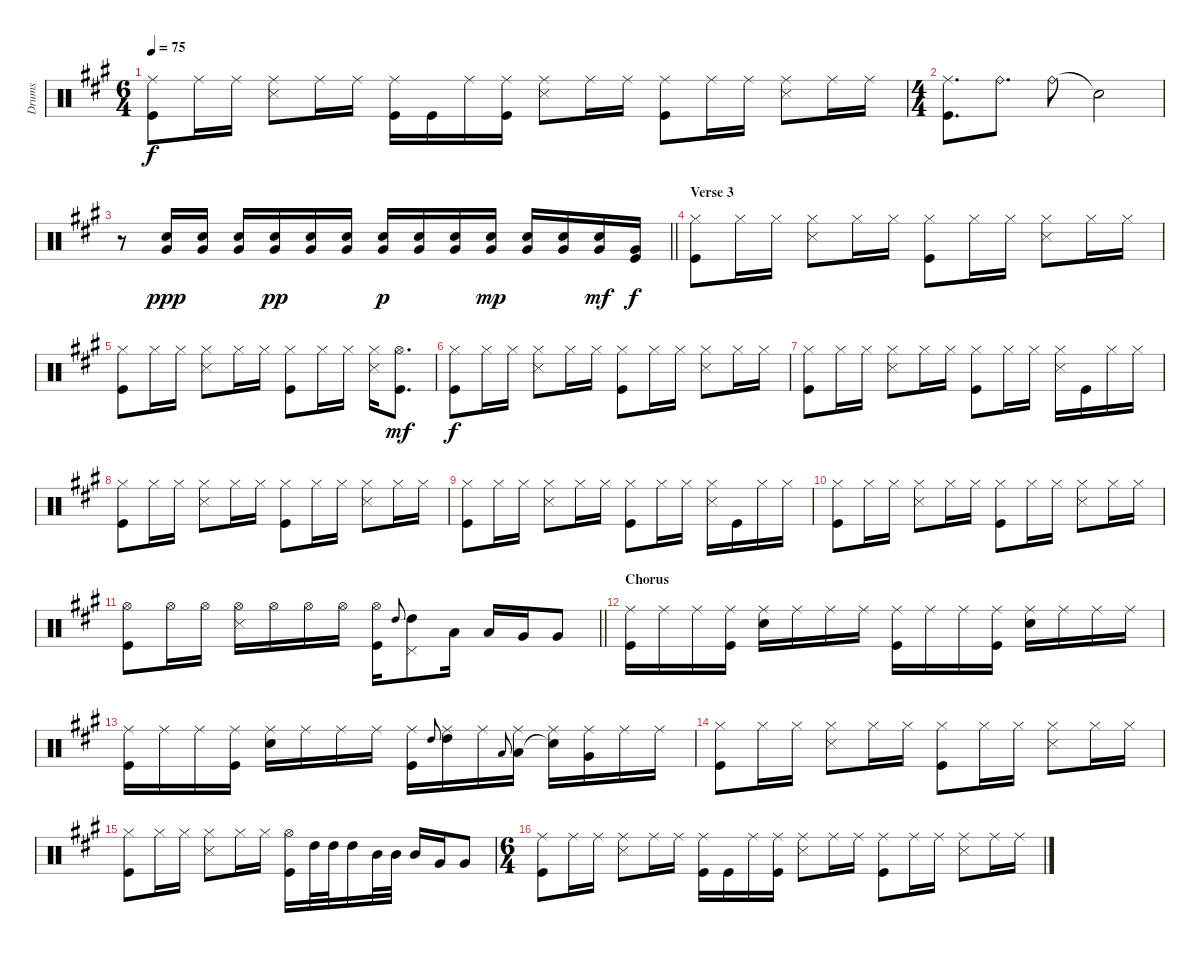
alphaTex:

\track ("Drums" "Drums") {instrument percussion}
\staff {score}
\articulation defaults
\ts (6 4)
\tempo 75
\clef neutral
\ks f#minor
("Ride (middle)" "Kick (hit)").8{dy f} "Ride (middle)".16 "Ride (middle)".16 ("Ride (middle)" "Snare (side stick) 3").8 "Ride (middle)".16 "Ride (middle)".16 ("Ride (middle)" "Kick (hit)").16 "Kick (hit)".16 "Ride (middle)".16 ("Ride (middle)" "Kick (hit)").16 ("Ride (middle)" "Snare (side stick) 3").8 "Ride (middle)".16 "Ride (middle)".16 ("Ride (middle)" "Kick (hit)").8 "Ride (middle)".16 "Ride (middle)".16 ("Ride (middle)" "Snare (side stick) 3").8 "Ride (middle)".16 "Ride (middle)".16 |
\ts (4 4)
("Ride (middle)" "Kick (hit)").8{d} "Ride (bell)".8{d} "Ride (bell)".8 "Snare (hit)"{t}.2 |
\barLineRight lightlight
r.8 ("Electric Snare (hit)" "Very Low Tom (hit)").16{dy ppp} ("Electric Snare (hit)" "Very Low Tom (hit)").16 ("Electric Snare (hit)" "Very Low Tom (hit)").16 ("Electric Snare (hit)" "Very Low Tom (hit)").16{dy pp} ("Electric Snare (hit)" "Very Low Tom (hit)").16 ("Electric Snare (hit)" "Very Low Tom (hit)").16 ("Electric Snare (hit)" "Very Low Tom (hit)").16{dy p} ("Electric Snare (hit)" "Very Low Tom (hit)").16 ("Electric Snare (hit)" "Very Low Tom (hit)").16 ("Electric Snare (hit)" "Very Low Tom (hit)").16{dy mp} ("Electric Snare (hit)" "Very Low Tom (hit)").16 ("Electric Snare (hit)" "Very Low Tom (hit)").16 ("Electric Snare (hit)" "Very Low Tom (hit)").16{dy mf} ("Very Low Tom (hit)" "Kick (hit)").16{dy f} |
\section ("" "Verse 3")
("Hi-Hat (closed)" "Kick (hit)").8 "Hi-Hat (closed)".16 "Hi-Hat (closed)".16 ("Hi-Hat (closed)" "Snare (side stick) 3").8 "Hi-Hat (closed)".16 "Hi-Hat (closed)".16 ("Hi-Hat (closed)" "Kick (hit)").8 "Hi-Hat (closed)".16 "Hi-Hat (closed)".16 ("Hi-Hat (closed)" "Snare (side stick) 3").8 "Hi-Hat (closed)".16 "Hi-Hat (closed)".16 |
("Hi-Hat (closed)" "Kick (hit)").8 "Hi-Hat (closed)".16 "Hi-Hat (closed)".16 ("Hi-Hat (closed)" "Snare (side stick) 3").8 "Hi-Hat (closed)".16 "Hi-Hat (closed)".16 ("Hi-Hat (closed)" "Kick (hit)").8 "Hi-Hat (closed)".16 "Hi-Hat (closed)".16 ("Hi-Hat (closed)" "Snare (side stick) 3").16 ("Hi-Hat (open)" "Kick (hit)").8{d dy mf} |
("Hi-Hat (closed)" "Kick (hit)").8{dy f} "Hi-Hat (closed)".16 "Hi-Hat (closed)".16 ("Hi-Hat (closed)" "Snare (side stick) 3").8 "Hi-Hat (closed)".16 "Hi-Hat (closed)".16 ("Hi-Hat (closed)" "Kick (hit)").8 "Hi-Hat (closed)".16 "Hi-Hat (closed)".16 ("Hi-Hat (closed)" "Snare (side stick) 3").8 "Hi-Hat (closed)".16 "Hi-Hat (closed)".16 |
("Hi-Hat (closed)" "Kick (hit)").8 "Hi-Hat (closed)".16 "Hi-Hat (closed)".16 ("Hi-Hat (closed)" "Snare (side stick) 3").8 "Hi-Hat (closed)".16 "Hi-Hat (closed)".16 ("Hi-Hat (closed)" "Kick (hit)").8 "Hi-Hat (closed)".16 "Hi-Hat (closed)".16 ("Hi-Hat (closed)" "Snare (side stick) 3").16 "Kick (hit)".16 "Hi-Hat (closed)".16 "Hi-Hat (closed)".16 |
("Hi-Hat (closed)" "Kick (hit)").8 "Hi-Hat (closed)".16 "Hi-Hat (closed)".16 ("Hi-Hat (closed)" "Snare (side stick) 3").8 "Hi-Hat (closed)".16 "Hi-Hat (closed)".16 ("Hi-Hat (closed)" "Kick (hit)").8 "Hi-Hat (closed)".16 "Hi-Hat (closed)".16 ("Hi-Hat (closed)" "Snare (side stick) 3").8 "Hi-Hat (closed)".16 "Hi-Hat (closed)".16 |
("Hi-Hat (closed)" "Kick (hit)").8 "Hi-Hat (closed)".16 "Hi-Hat (closed)".16 ("Hi-Hat (closed)" "Snare (side stick) 3").8 "Hi-Hat (closed)".16 "Hi-Hat (closed)".16 ("Hi-Hat (closed)" "Kick (hit)").8 "Hi-Hat (closed)".16 "Hi-Hat (closed)".16 ("Hi-Hat (closed)" "Snare (side stick) 3").16 "Kick (hit)".16 "Hi-Hat (closed)".16 "Hi-Hat (closed)".16 |
("Hi-Hat (closed)" "Kick (hit)").8 "Hi-Hat (closed)".16 "Hi-Hat (closed)".16 ("Hi-Hat (closed)" "Snare (side stick) 3").8 "Hi-Hat (closed)".16 "Hi-Hat (closed)".16 ("Hi-Hat (closed)" "Kick (hit)").8 "Hi-Hat (closed)".16 "Hi-Hat (closed)".16 ("Hi-Hat (closed)" "Snare (side stick) 3").8 "Hi-Hat (closed)".16 "Hi-Hat (closed)".16 |
\barLineRight lightlight
("Hi-Hat (open)" "Kick (hit)").8 "Hi-Hat (open)".16 "Hi-Hat (open)".16 ("Hi-Hat (open)" "Snare (side stick) 3").16 "Hi-Hat (open)".16 "Hi-Hat (open)".16 "Hi-Hat (open)".16 ("Hi-Hat (open)" "Kick (hit)").16 "High Tom (hit)".8{gr onbeat} ("High Tom (hit)" "Pedal Hi-Hat (hit)").8 "Low Tom (hit)".16 "Low Tom (hit)".16 "Very Low Tom (hit)".16 "Very Low Tom (hit)".8 |
\section ("" "Chorus")
("Ride (middle)" "Kick (hit)").16 "Ride (middle)".16 "Ride (middle)".16 ("Ride (middle)" "Kick (hit)").16 ("Ride (middle)" "Electric Snare (hit)").16 "Ride (middle)".16 "Ride (middle)".16 "Ride (middle)".16 ("Ride (middle)" "Kick (hit)").16 "Ride (middle)".16 "Ride (middle)".16 ("Ride (middle)" "Kick (hit)").16 ("Ride (middle)" "Electric Snare (hit)").16 "Ride (middle)".16 "Ride (middle)".16 "Ride (middle)".16 |
("Ride (middle)" "Kick (hit)").16 "Ride (middle)".16 "Ride (middle)".16 ("Ride (middle)" "Kick (hit)").16 ("Ride (middle)" "Electric Snare (hit)").16 "Ride (middle)".16 "Ride (middle)".16 "Ride (middle)".16 ("Ride (middle)" "Kick (hit)").16 "High Tom (hit)".8{gr onbeat} ("Ride (middle)" "High Tom (hit)").16 "Ride (middle)".16 "Low Tom (hit)".8{gr onbeat} ("Ride (middle)" "Low Tom (hit)").16 ("Ride (middle)" "Snare (hit)"{t}).16 ("Ride (middle)" "Very Low Tom (hit)").16 "Ride (middle)".16 "Ride (middle)".16 |
("Hi-Hat (closed)" "Kick (hit)").8 "Hi-Hat (closed)".16 "Hi-Hat (closed)".16 ("Hi-Hat (closed)" "Snare (side stick) 3").8 "Hi-Hat (closed)".16 "Hi-Hat (closed)".16 ("Hi-Hat (closed)" "Kick (hit)").8 "Hi-Hat (closed)".16 "Hi-Hat (closed)".16 ("Hi-Hat (closed)" "Snare (side stick) 3").8 "Hi-Hat (closed)".16 "Hi-Hat (closed)".16 |
("Hi-Hat (closed)" "Kick (hit)").8 "Hi-Hat (closed)".16 "Hi-Hat (closed)".16 ("Hi-Hat (closed)" "Snare (side stick) 3").8 "Hi-Hat (closed)".16 "Hi-Hat (closed)".16 ("Hi-Hat (open)" "Kick (hit)").16 "High Tom (hit)".32 "High Tom (hit)".32 "High Tom (hit)".16 "Mid Tom (hit)".32 "Mid Tom (hit)".32 "Mid Tom (hit)".16 "Very Low Tom (hit)".16 "Very Low Tom (hit)".8 |
\ts (6 4)
("Ride (middle)" "Kick (hit)").8 "Ride (middle)".16 "Ride (middle)".16 ("Ride (middle)" "Snare (side stick) 3").8 "Ride (middle)".16 "Ride (middle)".16 ("Ride (middle)" "Kick (hit)").16 "Kick (hit)".16 "Ride (middle)".16 ("Ride (middle)" "Kick (hit)").16 ("Ride (middle)" "Snare (side stick) 3").8 "Ride (middle)".16 "Ride (middle)".16 ("Ride (middle)" "Kick (hit)").8 "Ride (middle)".16 "Ride (middle)".16 ("Ride (middle)" "Snare (side stick) 3").8 "Ride (middle)".16 "Ride (middle)".16
